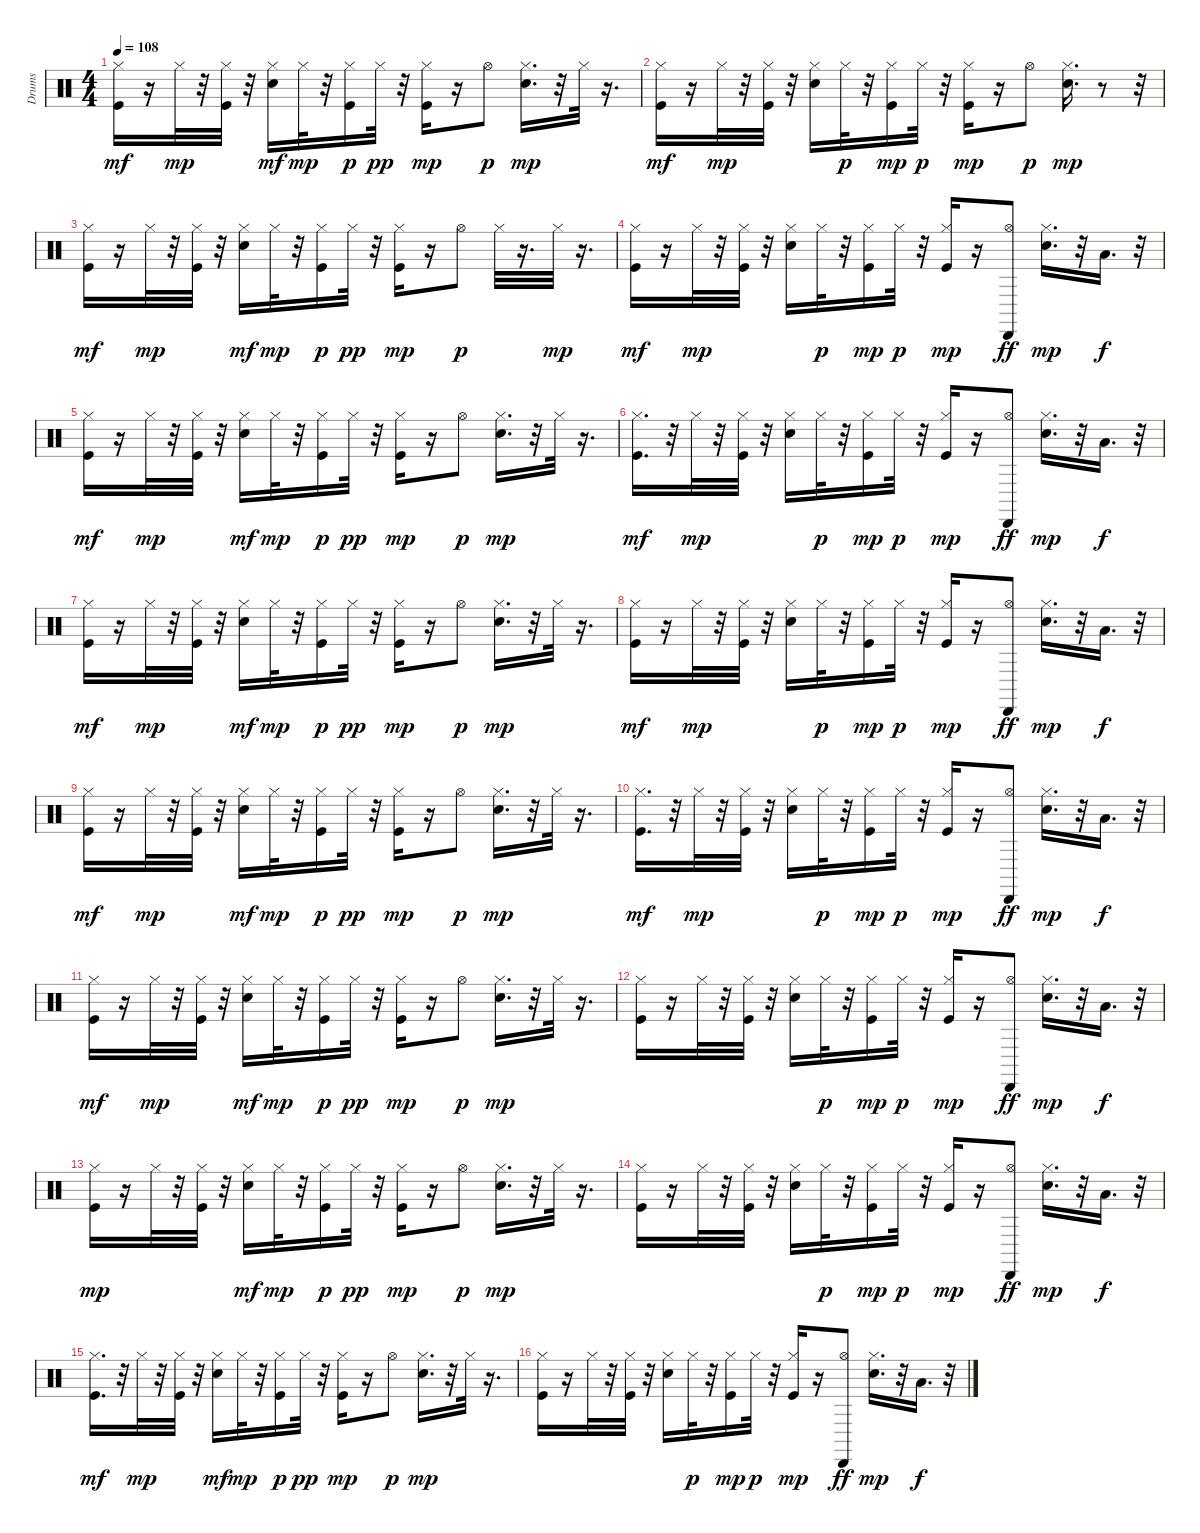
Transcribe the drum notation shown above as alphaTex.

\track ("Drums" "Drums") {instrument percussion}
\staff {score}
\articulation defaults
\ts (4 4)
\tempo 108
\clef neutral
\ks c
("Hi-Hat (closed)" "Kick (hit)").16{dy mf} r.16 "Hi-Hat (closed)".32{dy mp} r.32 ("Hi-Hat (closed)" "Kick (hit)").32 r.32 ("Hi-Hat (closed)" "Snare (hit) 2").16{dy mf} "Hi-Hat (closed)".32{dy mp} r.32 ("Hi-Hat (closed)" "Kick (hit)").16{dy p} "Hi-Hat (closed)".32{dy pp} r.32 ("Hi-Hat (closed)" "Kick (hit)").16{dy mp} r.16 "Hi-Hat (open)".8{dy p} ("Hi-Hat (closed)" "Snare (hit) 2").16{d dy mp} r.32 "Hi-Hat (closed)".32 r.16{d} |
("Hi-Hat (closed)" "Kick (hit)").16{dy mf} r.16 "Hi-Hat (closed)".32{dy mp} r.32 ("Hi-Hat (closed)" "Kick (hit)").32 r.32 ("Hi-Hat (closed)" "Snare (hit) 2").16 "Hi-Hat (closed)".32{dy p} r.32 ("Hi-Hat (closed)" "Kick (hit)").16{dy mp} "Hi-Hat (closed)".32{dy p} r.32 ("Kick (hit)" "Hi-Hat (closed)").16{dy mp} r.16 "Hi-Hat (open)".8{dy p} ("Hi-Hat (closed)" "Snare (hit) 2").16{d dy mp} r.8 r.32 |
("Hi-Hat (closed)" "Kick (hit)").16{dy mf} r.16 "Hi-Hat (closed)".32{dy mp} r.32 ("Hi-Hat (closed)" "Kick (hit)").32 r.32 ("Hi-Hat (closed)" "Snare (hit) 2").16{dy mf} "Hi-Hat (closed)".32{dy mp} r.32 ("Hi-Hat (closed)" "Kick (hit)").16{dy p} "Hi-Hat (closed)".32{dy pp} r.32 ("Hi-Hat (closed)" "Kick (hit)").16{dy mp} r.16 "Hi-Hat (open)".8{dy p} "Hi-Hat (closed)".32 r.16{d} "Hi-Hat (closed)".32{dy mp} r.16{d} |
("Hi-Hat (closed)" "Kick (hit)").16{dy mf} r.16 "Hi-Hat (closed)".32{dy mp} r.32 ("Hi-Hat (closed)" "Kick (hit)").32 r.32 ("Hi-Hat (closed)" "Snare (hit) 2").16 "Hi-Hat (closed)".32{dy p} r.32 ("Hi-Hat (closed)" "Kick (hit)").16{dy mp} "Hi-Hat (closed)".32{dy p} r.32 ("Hi-Hat (closed)" "Kick (hit)").16{dy mp} r.16 ("Hi-Hat (open)" "Cabasa (hit)").8{dy ff} ("Hi-Hat (closed)" "Snare (hit) 2").16{d dy mp} r.32 "Low Floor Tom (hit)".16{d dy f} r.32 |
("Hi-Hat (closed)" "Kick (hit)").16{dy mf} r.16 "Hi-Hat (closed)".32{dy mp} r.32 ("Hi-Hat (closed)" "Kick (hit)").32 r.32 ("Hi-Hat (closed)" "Snare (hit) 2").16{dy mf} "Hi-Hat (closed)".32{dy mp} r.32 ("Hi-Hat (closed)" "Kick (hit)").16{dy p} "Hi-Hat (closed)".32{dy pp} r.32 ("Hi-Hat (closed)" "Kick (hit)").16{dy mp} r.16 "Hi-Hat (open)".8{dy p} ("Hi-Hat (closed)" "Snare (hit) 2").16{d dy mp} r.32 "Hi-Hat (closed)".32 r.16{d} |
("Hi-Hat (closed)" "Kick (hit)").16{d dy mf} r.32 "Hi-Hat (closed)".32{dy mp} r.32 ("Hi-Hat (closed)" "Kick (hit)").32 r.32 ("Hi-Hat (closed)" "Snare (hit) 2").16 "Hi-Hat (closed)".32{dy p} r.32 ("Hi-Hat (closed)" "Kick (hit)").16{dy mp} "Hi-Hat (closed)".32{dy p} r.32 ("Hi-Hat (closed)" "Kick (hit)").16{dy mp} r.16 ("Hi-Hat (open)" "Cabasa (hit)").8{dy ff} ("Hi-Hat (closed)" "Snare (hit) 2").16{d dy mp} r.32 "Low Floor Tom (hit)".16{d dy f} r.32 |
("Hi-Hat (closed)" "Kick (hit)").16{dy mf} r.16 "Hi-Hat (closed)".32{dy mp} r.32 ("Hi-Hat (closed)" "Kick (hit)").32 r.32 ("Hi-Hat (closed)" "Snare (hit) 2").16{dy mf} "Hi-Hat (closed)".32{dy mp} r.32 ("Hi-Hat (closed)" "Kick (hit)").16{dy p} "Hi-Hat (closed)".32{dy pp} r.32 ("Hi-Hat (closed)" "Kick (hit)").16{dy mp} r.16 "Hi-Hat (open)".8{dy p} ("Hi-Hat (closed)" "Snare (hit) 2").16{d dy mp} r.32 "Hi-Hat (closed)".32 r.16{d} |
("Hi-Hat (closed)" "Kick (hit)").16{dy mf} r.16 "Hi-Hat (closed)".32{dy mp} r.32 ("Hi-Hat (closed)" "Kick (hit)").32 r.32 ("Hi-Hat (closed)" "Snare (hit) 2").16 "Hi-Hat (closed)".32{dy p} r.32 ("Hi-Hat (closed)" "Kick (hit)").16{dy mp} "Hi-Hat (closed)".32{dy p} r.32 ("Hi-Hat (closed)" "Kick (hit)").16{dy mp} r.16 ("Hi-Hat (open)" "Cabasa (hit)").8{dy ff} ("Hi-Hat (closed)" "Snare (hit) 2").16{d dy mp} r.32 "Low Floor Tom (hit)".16{d dy f} r.32 |
("Hi-Hat (closed)" "Kick (hit)").16{dy mf} r.16 "Hi-Hat (closed)".32{dy mp} r.32 ("Hi-Hat (closed)" "Kick (hit)").32 r.32 ("Hi-Hat (closed)" "Snare (hit) 2").16{dy mf} "Hi-Hat (closed)".32{dy mp} r.32 ("Hi-Hat (closed)" "Kick (hit)").16{dy p} "Hi-Hat (closed)".32{dy pp} r.32 ("Hi-Hat (closed)" "Kick (hit)").16{dy mp} r.16 "Hi-Hat (open)".8{dy p} ("Hi-Hat (closed)" "Snare (hit) 2").16{d dy mp} r.32 "Hi-Hat (closed)".32 r.16{d} |
("Hi-Hat (closed)" "Kick (hit)").16{d dy mf} r.32 "Hi-Hat (closed)".32{dy mp} r.32 ("Hi-Hat (closed)" "Kick (hit)").32 r.32 ("Hi-Hat (closed)" "Snare (hit) 2").16 "Hi-Hat (closed)".32{dy p} r.32 ("Hi-Hat (closed)" "Kick (hit)").16{dy mp} "Hi-Hat (closed)".32{dy p} r.32 ("Hi-Hat (closed)" "Kick (hit)").16{dy mp} r.16 ("Hi-Hat (open)" "Cabasa (hit)").8{dy ff} ("Hi-Hat (closed)" "Snare (hit) 2").16{d dy mp} r.32 "Low Floor Tom (hit)".16{d dy f} r.32 |
("Hi-Hat (closed)" "Kick (hit)").16{dy mf} r.16 "Hi-Hat (closed)".32{dy mp} r.32 ("Hi-Hat (closed)" "Kick (hit)").32 r.32 ("Hi-Hat (closed)" "Snare (hit) 2").16{dy mf} "Hi-Hat (closed)".32{dy mp} r.32 ("Hi-Hat (closed)" "Kick (hit)").16{dy p} "Hi-Hat (closed)".32{dy pp} r.32 ("Hi-Hat (closed)" "Kick (hit)").16{dy mp} r.16 "Hi-Hat (open)".8{dy p} ("Hi-Hat (closed)" "Snare (hit) 2").16{d dy mp} r.32 "Hi-Hat (closed)".32 r.16{d} |
("Kick (hit)" "Hi-Hat (closed)").16 r.16 "Hi-Hat (closed)".32 r.32 ("Hi-Hat (closed)" "Kick (hit)").32 r.32 ("Hi-Hat (closed)" "Snare (hit) 2").16 "Hi-Hat (closed)".32{dy p} r.32 ("Hi-Hat (closed)" "Kick (hit)").16{dy mp} "Hi-Hat (closed)".32{dy p} r.32 ("Hi-Hat (closed)" "Kick (hit)").16{dy mp} r.16 ("Hi-Hat (open)" "Cabasa (hit)").8{dy ff} ("Hi-Hat (closed)" "Snare (hit) 2").16{d dy mp} r.32 "Low Floor Tom (hit)".16{d dy f} r.32 |
("Kick (hit)" "Hi-Hat (closed)").16{dy mp} r.16 "Hi-Hat (closed)".32 r.32 ("Hi-Hat (closed)" "Kick (hit)").32 r.32 ("Hi-Hat (closed)" "Snare (hit) 2").16{dy mf} "Hi-Hat (closed)".32{dy mp} r.32 ("Hi-Hat (closed)" "Kick (hit)").16{dy p} "Hi-Hat (closed)".32{dy pp} r.32 ("Hi-Hat (closed)" "Kick (hit)").16{dy mp} r.16 "Hi-Hat (open)".8{dy p} ("Hi-Hat (closed)" "Snare (hit) 2").16{d dy mp} r.32 "Hi-Hat (closed)".32 r.16{d} |
("Kick (hit)" "Hi-Hat (closed)").16 r.16 "Hi-Hat (closed)".32 r.32 ("Hi-Hat (closed)" "Kick (hit)").32 r.32 ("Hi-Hat (closed)" "Snare (hit) 2").16 "Hi-Hat (closed)".32{dy p} r.32 ("Hi-Hat (closed)" "Kick (hit)").16{dy mp} "Hi-Hat (closed)".32{dy p} r.32 ("Hi-Hat (closed)" "Kick (hit)").16{dy mp} r.16 ("Hi-Hat (open)" "Cabasa (hit)").8{dy ff} ("Hi-Hat (closed)" "Snare (hit) 2").16{d dy mp} r.32 "Low Floor Tom (hit)".16{d dy f} r.32 |
("Hi-Hat (closed)" "Kick (hit)").16{d dy mf} r.32 "Hi-Hat (closed)".32{dy mp} r.32 ("Hi-Hat (closed)" "Kick (hit)").32 r.32 ("Hi-Hat (closed)" "Snare (hit) 2").16{dy mf} "Hi-Hat (closed)".32{dy mp} r.32 ("Hi-Hat (closed)" "Kick (hit)").16{dy p} "Hi-Hat (closed)".32{dy pp} r.32 ("Hi-Hat (closed)" "Kick (hit)").16{dy mp} r.16 "Hi-Hat (open)".8{dy p} ("Hi-Hat (closed)" "Snare (hit) 2").16{d dy mp} r.32 "Hi-Hat (closed)".32 r.16{d} |
("Kick (hit)" "Hi-Hat (closed)").16 r.16 "Hi-Hat (closed)".32 r.32 ("Hi-Hat (closed)" "Kick (hit)").32 r.32 ("Hi-Hat (closed)" "Snare (hit) 2").16 "Hi-Hat (closed)".32{dy p} r.32 ("Hi-Hat (closed)" "Kick (hit)").16{dy mp} "Hi-Hat (closed)".32{dy p} r.32 ("Hi-Hat (closed)" "Kick (hit)").16{dy mp} r.16 ("Hi-Hat (open)" "Cabasa (hit)").8{dy ff} ("Hi-Hat (closed)" "Snare (hit) 2").16{d dy mp} r.32 "Low Floor Tom (hit)".16{d dy f} r.32
